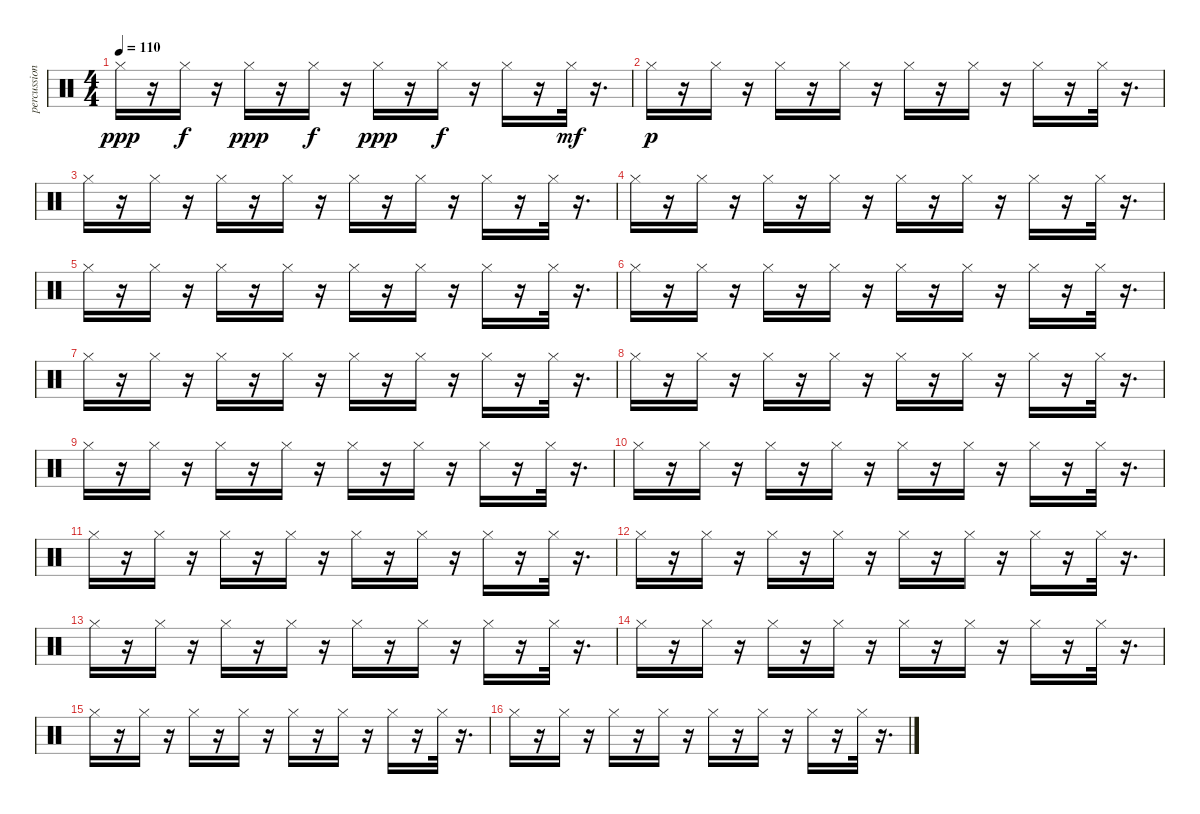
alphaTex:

\track ("percussions 2" "percussion") {instrument percussion}
\staff {score}
\articulation defaults
\ts (4 4)
\tempo 110
\clef neutral
\ks c "Hi-Hat (closed)".16{dy ppp}
r.16 "Hi-Hat (closed)".16{dy f} r.16 "Hi-Hat (closed)".16{dy ppp} r.16 "Hi-Hat (closed)".16{dy f} r.16 "Hi-Hat (closed)".16{dy ppp} r.16 "Hi-Hat (closed)".16{dy f} r.16 "Hi-Hat (closed)".16 r.16 "Hi-Hat (closed)".32{dy mf} r.16{d} |
"Hi-Hat (closed)".16{dy p} r.16 "Hi-Hat (closed)".16 r.16 "Hi-Hat (closed)".16 r.16 "Hi-Hat (closed)".16 r.16 "Hi-Hat (closed)".16 r.16 "Hi-Hat (closed)".16 r.16 "Hi-Hat (closed)".16 r.16 "Hi-Hat (closed)".32 r.16{d} |
"Hi-Hat (closed)".16 r.16 "Hi-Hat (closed)".16 r.16 "Hi-Hat (closed)".16 r.16 "Hi-Hat (closed)".16 r.16 "Hi-Hat (closed)".16 r.16 "Hi-Hat (closed)".16 r.16 "Hi-Hat (closed)".16 r.16 "Hi-Hat (closed)".32 r.16{d} |
"Hi-Hat (closed)".16 r.16 "Hi-Hat (closed)".16 r.16 "Hi-Hat (closed)".16 r.16 "Hi-Hat (closed)".16 r.16 "Hi-Hat (closed)".16 r.16 "Hi-Hat (closed)".16 r.16 "Hi-Hat (closed)".16 r.16 "Hi-Hat (closed)".32 r.16{d} |
"Hi-Hat (closed)".16 r.16 "Hi-Hat (closed)".16 r.16 "Hi-Hat (closed)".16 r.16 "Hi-Hat (closed)".16 r.16 "Hi-Hat (closed)".16 r.16 "Hi-Hat (closed)".16 r.16 "Hi-Hat (closed)".16 r.16 "Hi-Hat (closed)".32 r.16{d} |
"Hi-Hat (closed)".16 r.16 "Hi-Hat (closed)".16 r.16 "Hi-Hat (closed)".16 r.16 "Hi-Hat (closed)".16 r.16 "Hi-Hat (closed)".16 r.16 "Hi-Hat (closed)".16 r.16 "Hi-Hat (closed)".16 r.16 "Hi-Hat (closed)".32 r.16{d} |
"Hi-Hat (closed)".16 r.16 "Hi-Hat (closed)".16 r.16 "Hi-Hat (closed)".16 r.16 "Hi-Hat (closed)".16 r.16 "Hi-Hat (closed)".16 r.16 "Hi-Hat (closed)".16 r.16 "Hi-Hat (closed)".16 r.16 "Hi-Hat (closed)".32 r.16{d} |
"Hi-Hat (closed)".16 r.16 "Hi-Hat (closed)".16 r.16 "Hi-Hat (closed)".16 r.16 "Hi-Hat (closed)".16 r.16 "Hi-Hat (closed)".16 r.16 "Hi-Hat (closed)".16 r.16 "Hi-Hat (closed)".16 r.16 "Hi-Hat (closed)".32 r.16{d} |
"Hi-Hat (closed)".16 r.16 "Hi-Hat (closed)".16 r.16 "Hi-Hat (closed)".16 r.16 "Hi-Hat (closed)".16 r.16 "Hi-Hat (closed)".16 r.16 "Hi-Hat (closed)".16 r.16 "Hi-Hat (closed)".16 r.16 "Hi-Hat (closed)".32 r.16{d} |
"Hi-Hat (closed)".16 r.16 "Hi-Hat (closed)".16 r.16 "Hi-Hat (closed)".16 r.16 "Hi-Hat (closed)".16 r.16 "Hi-Hat (closed)".16 r.16 "Hi-Hat (closed)".16 r.16 "Hi-Hat (closed)".16 r.16 "Hi-Hat (closed)".32 r.16{d} |
"Hi-Hat (closed)".16 r.16 "Hi-Hat (closed)".16 r.16 "Hi-Hat (closed)".16 r.16 "Hi-Hat (closed)".16 r.16 "Hi-Hat (closed)".16 r.16 "Hi-Hat (closed)".16 r.16 "Hi-Hat (closed)".16 r.16 "Hi-Hat (closed)".32 r.16{d} |
"Hi-Hat (closed)".16 r.16 "Hi-Hat (closed)".16 r.16 "Hi-Hat (closed)".16 r.16 "Hi-Hat (closed)".16 r.16 "Hi-Hat (closed)".16 r.16 "Hi-Hat (closed)".16 r.16 "Hi-Hat (closed)".16 r.16 "Hi-Hat (closed)".32 r.16{d} |
"Hi-Hat (closed)".16 r.16 "Hi-Hat (closed)".16 r.16 "Hi-Hat (closed)".16 r.16 "Hi-Hat (closed)".16 r.16 "Hi-Hat (closed)".16 r.16 "Hi-Hat (closed)".16 r.16 "Hi-Hat (closed)".16 r.16 "Hi-Hat (closed)".32 r.16{d} |
"Hi-Hat (closed)".16 r.16 "Hi-Hat (closed)".16 r.16 "Hi-Hat (closed)".16 r.16 "Hi-Hat (closed)".16 r.16 "Hi-Hat (closed)".16 r.16 "Hi-Hat (closed)".16 r.16 "Hi-Hat (closed)".16 r.16 "Hi-Hat (closed)".32 r.16{d} |
"Hi-Hat (closed)".16 r.16 "Hi-Hat (closed)".16 r.16 "Hi-Hat (closed)".16 r.16 "Hi-Hat (closed)".16 r.16 "Hi-Hat (closed)".16 r.16 "Hi-Hat (closed)".16 r.16 "Hi-Hat (closed)".16 r.16 "Hi-Hat (closed)".32 r.16{d} |
"Hi-Hat (closed)".16 r.16 "Hi-Hat (closed)".16 r.16 "Hi-Hat (closed)".16 r.16 "Hi-Hat (closed)".16 r.16 "Hi-Hat (closed)".16 r.16 "Hi-Hat (closed)".16 r.16 "Hi-Hat (closed)".16 r.16 "Hi-Hat (closed)".32 r.16{d}
